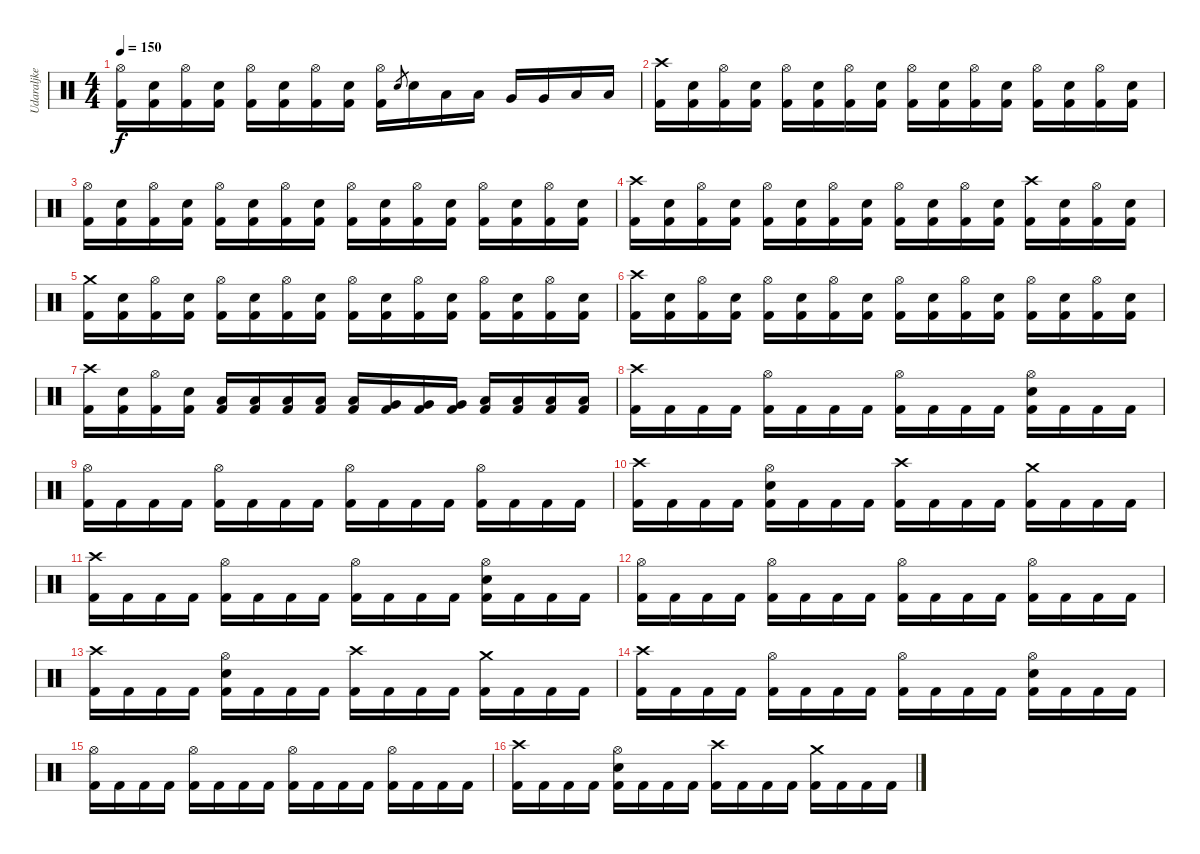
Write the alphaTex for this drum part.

\track ("Udaraljke" "Udaraljke") {instrument percussion}
\staff {score}
\articulation defaults
\ts (4 4)
\tempo 150
\clef neutral
\ks c
("Hi-Hat (open)" "Kick (hit) 2").16{dy f} ("Electric Snare (hit)" "Kick (hit) 2").16 ("Hi-Hat (open)" "Kick (hit) 2").16 ("Electric Snare (hit)" "Kick (hit) 2").16 ("Hi-Hat (open)" "Kick (hit) 2").16 ("Electric Snare (hit)" "Kick (hit) 2").16 ("Hi-Hat (open)" "Kick (hit) 2").16 ("Electric Snare (hit)" "Kick (hit) 2").16 ("Hi-Hat (open)" "Kick (hit) 2").16 "Electric Snare (hit)".8{gr} "Electric Snare (hit)".16 "Low Floor Tom (hit)".16 "Low Floor Tom (hit)".16 "Very Low Tom (hit)".16 "Very Low Tom (hit)".16 "Low Tom (hit)".16 "Low Tom (hit)".16 |
("Crash high (hit)" "Kick (hit) 2").16 ("Electric Snare (hit)" "Kick (hit) 2").16 ("Hi-Hat (open)" "Kick (hit) 2").16 ("Electric Snare (hit)" "Kick (hit) 2").16 ("Hi-Hat (open)" "Kick (hit) 2").16 ("Electric Snare (hit)" "Kick (hit) 2").16 ("Hi-Hat (open)" "Kick (hit) 2").16 ("Electric Snare (hit)" "Kick (hit) 2").16 ("Hi-Hat (open)" "Kick (hit) 2").16 ("Electric Snare (hit)" "Kick (hit) 2").16 ("Hi-Hat (open)" "Kick (hit) 2").16 ("Electric Snare (hit)" "Kick (hit) 2").16 ("Hi-Hat (open)" "Kick (hit) 2").16 ("Electric Snare (hit)" "Kick (hit) 2").16 ("Hi-Hat (open)" "Kick (hit) 2").16 ("Electric Snare (hit)" "Kick (hit) 2").16 |
("Hi-Hat (open)" "Kick (hit) 2").16 ("Electric Snare (hit)" "Kick (hit) 2").16 ("Hi-Hat (open)" "Kick (hit) 2").16 ("Electric Snare (hit)" "Kick (hit) 2").16 ("Hi-Hat (open)" "Kick (hit) 2").16 ("Electric Snare (hit)" "Kick (hit) 2").16 ("Hi-Hat (open)" "Kick (hit) 2").16 ("Electric Snare (hit)" "Kick (hit) 2").16 ("Hi-Hat (open)" "Kick (hit) 2").16 ("Electric Snare (hit)" "Kick (hit) 2").16 ("Hi-Hat (open)" "Kick (hit) 2").16 ("Electric Snare (hit)" "Kick (hit) 2").16 ("Hi-Hat (open)" "Kick (hit) 2").16 ("Electric Snare (hit)" "Kick (hit) 2").16 ("Hi-Hat (open)" "Kick (hit) 2").16 ("Electric Snare (hit)" "Kick (hit) 2").16 |
("Crash high (hit)" "Kick (hit) 2").16 ("Electric Snare (hit)" "Kick (hit) 2").16 ("Hi-Hat (open)" "Kick (hit) 2").16 ("Electric Snare (hit)" "Kick (hit) 2").16 ("Hi-Hat (open)" "Kick (hit) 2").16 ("Electric Snare (hit)" "Kick (hit) 2").16 ("Hi-Hat (open)" "Kick (hit) 2").16 ("Electric Snare (hit)" "Kick (hit) 2").16 ("Hi-Hat (open)" "Kick (hit) 2").16 ("Electric Snare (hit)" "Kick (hit) 2").16 ("Hi-Hat (open)" "Kick (hit) 2").16 ("Electric Snare (hit)" "Kick (hit) 2").16 ("Crash high (hit)" "Kick (hit) 2").16 ("Electric Snare (hit)" "Kick (hit) 2").16 ("Hi-Hat (open)" "Kick (hit) 2").16 ("Electric Snare (hit)" "Kick (hit) 2").16 |
("Crash medium (hit)" "Kick (hit) 2").16 ("Electric Snare (hit)" "Kick (hit) 2").16 ("Hi-Hat (open)" "Kick (hit) 2").16 ("Electric Snare (hit)" "Kick (hit) 2").16 ("Hi-Hat (open)" "Kick (hit) 2").16 ("Electric Snare (hit)" "Kick (hit) 2").16 ("Hi-Hat (open)" "Kick (hit) 2").16 ("Electric Snare (hit)" "Kick (hit) 2").16 ("Hi-Hat (open)" "Kick (hit) 2").16 ("Electric Snare (hit)" "Kick (hit) 2").16 ("Hi-Hat (open)" "Kick (hit) 2").16 ("Electric Snare (hit)" "Kick (hit) 2").16 ("Hi-Hat (open)" "Kick (hit) 2").16 ("Electric Snare (hit)" "Kick (hit) 2").16 ("Hi-Hat (open)" "Kick (hit) 2").16 ("Electric Snare (hit)" "Kick (hit) 2").16 |
("Crash high (hit)" "Kick (hit) 2").16 ("Electric Snare (hit)" "Kick (hit) 2").16 ("Hi-Hat (open)" "Kick (hit) 2").16 ("Electric Snare (hit)" "Kick (hit) 2").16 ("Hi-Hat (open)" "Kick (hit) 2").16 ("Electric Snare (hit)" "Kick (hit) 2").16 ("Hi-Hat (open)" "Kick (hit) 2").16 ("Electric Snare (hit)" "Kick (hit) 2").16 ("Hi-Hat (open)" "Kick (hit) 2").16 ("Electric Snare (hit)" "Kick (hit) 2").16 ("Hi-Hat (open)" "Kick (hit) 2").16 ("Electric Snare (hit)" "Kick (hit) 2").16 ("Hi-Hat (open)" "Kick (hit) 2").16 ("Electric Snare (hit)" "Kick (hit) 2").16 ("Hi-Hat (open)" "Kick (hit) 2").16 ("Electric Snare (hit)" "Kick (hit) 2").16 |
("Crash high (hit)" "Kick (hit) 2").16 ("Electric Snare (hit)" "Kick (hit) 2").16 ("Hi-Hat (open)" "Kick (hit) 2").16 ("Electric Snare (hit)" "Kick (hit) 2").16 ("Low Floor Tom (hit)" "Kick (hit) 2").16 ("Low Floor Tom (hit)" "Kick (hit) 2").16 ("Low Floor Tom (hit)" "Kick (hit) 2").16 ("Low Floor Tom (hit)" "Kick (hit) 2").16 ("Low Floor Tom (hit)" "Kick (hit) 2").16 ("Very Low Tom (hit)" "Kick (hit) 2").16 ("Very Low Tom (hit)" "Kick (hit) 2").16 ("Very Low Tom (hit)" "Kick (hit) 2").16 ("Low Tom (hit)" "Kick (hit) 2").16 ("Low Tom (hit)" "Kick (hit) 2").16 ("Low Tom (hit)" "Kick (hit) 2").16 ("Low Tom (hit)" "Kick (hit) 2").16 |
("Crash high (hit)" "Kick (hit) 2").16 "Kick (hit) 2".16 "Kick (hit) 2".16 "Kick (hit) 2".16 ("Hi-Hat (open)" "Kick (hit) 2").16 "Kick (hit) 2".16 "Kick (hit) 2".16 "Kick (hit) 2".16 ("Hi-Hat (open)" "Kick (hit) 2").16 "Kick (hit) 2".16 "Kick (hit) 2".16 "Kick (hit) 2".16 ("Hi-Hat (open)" "Electric Snare (hit)" "Kick (hit) 2").16 "Kick (hit) 2".16 "Kick (hit) 2".16 "Kick (hit) 2".16 |
("Hi-Hat (open)" "Kick (hit) 2").16 "Kick (hit) 2".16 "Kick (hit) 2".16 "Kick (hit) 2".16 ("Hi-Hat (open)" "Kick (hit) 2").16 "Kick (hit) 2".16 "Kick (hit) 2".16 "Kick (hit) 2".16 ("Hi-Hat (open)" "Kick (hit) 2").16 "Kick (hit) 2".16 "Kick (hit) 2".16 "Kick (hit) 2".16 ("Hi-Hat (open)" "Kick (hit) 2").16 "Kick (hit) 2".16 "Kick (hit) 2".16 "Kick (hit) 2".16 |
("Crash high (hit)" "Kick (hit) 2").16 "Kick (hit) 2".16 "Kick (hit) 2".16 "Kick (hit) 2".16 ("Hi-Hat (open)" "Electric Snare (hit)" "Kick (hit) 2").16 "Kick (hit) 2".16 "Kick (hit) 2".16 "Kick (hit) 2".16 ("Crash high (hit)" "Kick (hit) 2").16 "Kick (hit) 2".16 "Kick (hit) 2".16 "Kick (hit) 2".16 ("Crash medium (hit)" "Kick (hit) 2").16 "Kick (hit) 2".16 "Kick (hit) 2".16 "Kick (hit) 2".16 |
("Crash high (hit)" "Kick (hit) 2").16 "Kick (hit) 2".16 "Kick (hit) 2".16 "Kick (hit) 2".16 ("Hi-Hat (open)" "Kick (hit) 2").16 "Kick (hit) 2".16 "Kick (hit) 2".16 "Kick (hit) 2".16 ("Hi-Hat (open)" "Kick (hit) 2").16 "Kick (hit) 2".16 "Kick (hit) 2".16 "Kick (hit) 2".16 ("Hi-Hat (open)" "Electric Snare (hit)" "Kick (hit) 2").16 "Kick (hit) 2".16 "Kick (hit) 2".16 "Kick (hit) 2".16 |
("Hi-Hat (open)" "Kick (hit) 2").16 "Kick (hit) 2".16 "Kick (hit) 2".16 "Kick (hit) 2".16 ("Hi-Hat (open)" "Kick (hit) 2").16 "Kick (hit) 2".16 "Kick (hit) 2".16 "Kick (hit) 2".16 ("Hi-Hat (open)" "Kick (hit) 2").16 "Kick (hit) 2".16 "Kick (hit) 2".16 "Kick (hit) 2".16 ("Hi-Hat (open)" "Kick (hit) 2").16 "Kick (hit) 2".16 "Kick (hit) 2".16 "Kick (hit) 2".16 |
("Crash high (hit)" "Kick (hit) 2").16 "Kick (hit) 2".16 "Kick (hit) 2".16 "Kick (hit) 2".16 ("Hi-Hat (open)" "Electric Snare (hit)" "Kick (hit) 2").16 "Kick (hit) 2".16 "Kick (hit) 2".16 "Kick (hit) 2".16 ("Crash high (hit)" "Kick (hit) 2").16 "Kick (hit) 2".16 "Kick (hit) 2".16 "Kick (hit) 2".16 ("Crash medium (hit)" "Kick (hit) 2").16 "Kick (hit) 2".16 "Kick (hit) 2".16 "Kick (hit) 2".16 |
("Crash high (hit)" "Kick (hit) 2").16 "Kick (hit) 2".16 "Kick (hit) 2".16 "Kick (hit) 2".16 ("Hi-Hat (open)" "Kick (hit) 2").16 "Kick (hit) 2".16 "Kick (hit) 2".16 "Kick (hit) 2".16 ("Hi-Hat (open)" "Kick (hit) 2").16 "Kick (hit) 2".16 "Kick (hit) 2".16 "Kick (hit) 2".16 ("Hi-Hat (open)" "Electric Snare (hit)" "Kick (hit) 2").16 "Kick (hit) 2".16 "Kick (hit) 2".16 "Kick (hit) 2".16 |
("Hi-Hat (open)" "Kick (hit) 2").16 "Kick (hit) 2".16 "Kick (hit) 2".16 "Kick (hit) 2".16 ("Hi-Hat (open)" "Kick (hit) 2").16 "Kick (hit) 2".16 "Kick (hit) 2".16 "Kick (hit) 2".16 ("Hi-Hat (open)" "Kick (hit) 2").16 "Kick (hit) 2".16 "Kick (hit) 2".16 "Kick (hit) 2".16 ("Hi-Hat (open)" "Kick (hit) 2").16 "Kick (hit) 2".16 "Kick (hit) 2".16 "Kick (hit) 2".16 |
("Crash high (hit)" "Kick (hit) 2").16 "Kick (hit) 2".16 "Kick (hit) 2".16 "Kick (hit) 2".16 ("Hi-Hat (open)" "Electric Snare (hit)" "Kick (hit) 2").16 "Kick (hit) 2".16 "Kick (hit) 2".16 "Kick (hit) 2".16 ("Crash high (hit)" "Kick (hit) 2").16 "Kick (hit) 2".16 "Kick (hit) 2".16 "Kick (hit) 2".16 ("Crash medium (hit)" "Kick (hit) 2").16 "Kick (hit) 2".16 "Kick (hit) 2".16 "Kick (hit) 2".16
